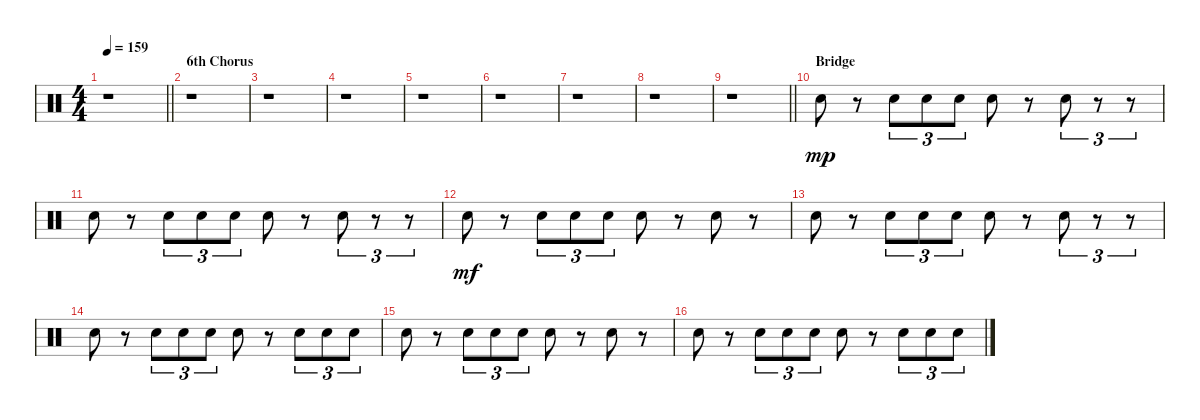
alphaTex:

\track "" {instrument percussion}
\staff {score}
\articulation defaults
\ts (4 4)
\tempo 159
\clef neutral
\barLineRight lightlight
\ks c
r.1{dy mp} |
\section ("" "6th Chorus")
r.1 |
r.1 |
r.1 |
r.1 |
r.1 |
r.1 |
r.1 |
\barLineRight lightlight
r.1 |
\section ("" "Bridge")
"Electric Snare (hit)".8{volume 9 balance 12} r.8 "Electric Snare (hit)".8{tu (3 2)} "Electric Snare (hit)".8{tu (3 2)} "Electric Snare (hit)".8{tu (3 2)} "Electric Snare (hit)".8 r.8 "Electric Snare (hit)".8{tu (3 2)} r.8{tu (3 2)} r.8{tu (3 2)} |
"Electric Snare (hit)".8 r.8 "Electric Snare (hit)".8{tu (3 2)} "Electric Snare (hit)".8{tu (3 2)} "Electric Snare (hit)".8{tu (3 2)} "Electric Snare (hit)".8 r.8 "Electric Snare (hit)".8{tu (3 2)} r.8{tu (3 2)} r.8{tu (3 2)} |
"Electric Snare (hit)".8{dy mf} r.8 "Electric Snare (hit)".8{tu (3 2)} "Electric Snare (hit)".8{tu (3 2)} "Electric Snare (hit)".8{tu (3 2)} "Electric Snare (hit)".8 r.8 "Electric Snare (hit)".8 r.8 |
"Electric Snare (hit)".8 r.8 "Electric Snare (hit)".8{tu (3 2)} "Electric Snare (hit)".8{tu (3 2)} "Electric Snare (hit)".8{tu (3 2)} "Electric Snare (hit)".8 r.8 "Electric Snare (hit)".8{tu (3 2)} r.8{tu (3 2)} r.8{tu (3 2)} |
"Electric Snare (hit)".8 r.8 "Electric Snare (hit)".8{tu (3 2)} "Electric Snare (hit)".8{tu (3 2)} "Electric Snare (hit)".8{tu (3 2)} "Electric Snare (hit)".8 r.8 "Electric Snare (hit)".8{tu (3 2)} "Electric Snare (hit)".8{tu (3 2)} "Electric Snare (hit)".8{tu (3 2)} |
"Electric Snare (hit)".8 r.8 "Electric Snare (hit)".8{tu (3 2)} "Electric Snare (hit)".8{tu (3 2)} "Electric Snare (hit)".8{tu (3 2)} "Electric Snare (hit)".8 r.8 "Electric Snare (hit)".8 r.8 |
"Electric Snare (hit)".8 r.8 "Electric Snare (hit)".8{tu (3 2)} "Electric Snare (hit)".8{tu (3 2)} "Electric Snare (hit)".8{tu (3 2)} "Electric Snare (hit)".8 r.8 "Electric Snare (hit)".8{tu (3 2)} "Electric Snare (hit)".8{tu (3 2)} "Electric Snare (hit)".8{tu (3 2)}
